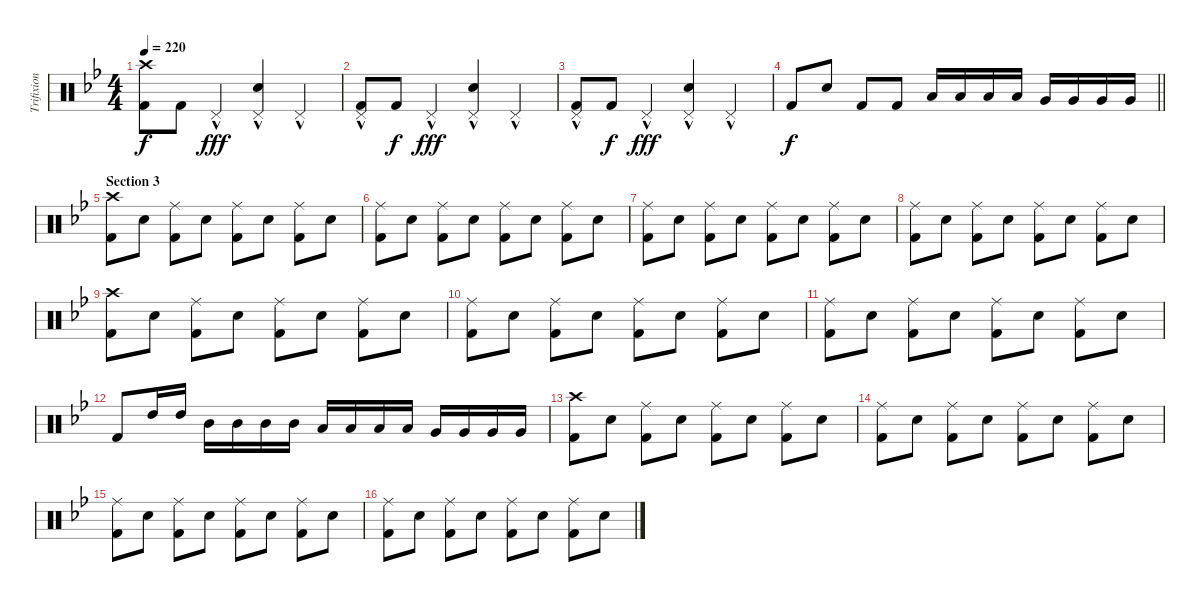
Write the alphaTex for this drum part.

\track ("Trifixion" "Trifixion") {instrument percussion}
\staff {score}
\articulation defaults
\ts (4 4)
\tempo 220
\clef neutral
\ks gminor
("Crash high (hit)" "Kick (hit) 2").8{dy f} "Kick (hit) 2".8 "Pedal Hi-Hat (hit)"{hac}.4{dy fff} ("Pedal Hi-Hat (hit)"{hac} "Electric Snare (hit)").4 "Pedal Hi-Hat (hit)"{hac}.4 |
("Pedal Hi-Hat (hit)"{hac} "Kick (hit) 2").8 "Kick (hit) 2".8{dy f} "Pedal Hi-Hat (hit)"{hac}.4{dy fff} ("Pedal Hi-Hat (hit)"{hac} "Electric Snare (hit)").4 "Pedal Hi-Hat (hit)"{hac}.4 |
("Pedal Hi-Hat (hit)"{hac} "Kick (hit) 2").8 "Kick (hit) 2".8{dy f} "Pedal Hi-Hat (hit)"{hac}.4{dy fff} ("Pedal Hi-Hat (hit)"{hac} "Electric Snare (hit)").4 "Pedal Hi-Hat (hit)"{hac}.4 |
\barLineRight lightlight "Kick (hit) 2".8{dy f} "Electric Snare (hit)".8 "Kick (hit) 2".8 "Kick (hit) 2".8 "Low Tom (hit)".16 "Low Tom (hit)".16 "Low Tom (hit)".16 "Low Tom (hit)".16 "Very Low Tom (hit)".16 "Very Low Tom (hit)".16 "Very Low Tom (hit)".16 "Very Low Tom (hit)".16
|
\section ("" "Section 3")
("Crash high (hit)" "Kick (hit) 2").8 "Electric Snare (hit)".8 ("Ride (middle)" "Kick (hit) 2").8 "Electric Snare (hit)".8 ("Ride (middle)" "Kick (hit) 2").8 "Electric Snare (hit)".8 ("Ride (middle)" "Kick (hit) 2").8 "Electric Snare (hit)".8 |
("Ride (middle)" "Kick (hit) 2").8 "Electric Snare (hit)".8 ("Ride (middle)" "Kick (hit) 2").8 "Electric Snare (hit)".8 ("Ride (middle)" "Kick (hit) 2").8 "Electric Snare (hit)".8 ("Ride (middle)" "Kick (hit) 2").8 "Electric Snare (hit)".8 |
("Ride (middle)" "Kick (hit) 2").8 "Electric Snare (hit)".8 ("Ride (middle)" "Kick (hit) 2").8 "Electric Snare (hit)".8 ("Ride (middle)" "Kick (hit) 2").8 "Electric Snare (hit)".8 ("Ride (middle)" "Kick (hit) 2").8 "Electric Snare (hit)".8 |
("Ride (middle)" "Kick (hit) 2").8 "Electric Snare (hit)".8 ("Ride (middle)" "Kick (hit) 2").8 "Electric Snare (hit)".8 ("Ride (middle)" "Kick (hit) 2").8 "Electric Snare (hit)".8 ("Ride (middle)" "Kick (hit) 2").8 "Electric Snare (hit)".8 |
("Crash high (hit)" "Kick (hit) 2").8 "Electric Snare (hit)".8 ("Ride (middle)" "Kick (hit) 2").8 "Electric Snare (hit)".8 ("Ride (middle)" "Kick (hit) 2").8 "Electric Snare (hit)".8 ("Ride (middle)" "Kick (hit) 2").8 "Electric Snare (hit)".8 |
("Ride (middle)" "Kick (hit) 2").8 "Electric Snare (hit)".8 ("Ride (middle)" "Kick (hit) 2").8 "Electric Snare (hit)".8 ("Ride (middle)" "Kick (hit) 2").8 "Electric Snare (hit)".8 ("Ride (middle)" "Kick (hit) 2").8 "Electric Snare (hit)".8 |
("Ride (middle)" "Kick (hit) 2").8 "Electric Snare (hit)".8 ("Ride (middle)" "Kick (hit) 2").8 "Electric Snare (hit)".8 ("Ride (middle)" "Kick (hit) 2").8 "Electric Snare (hit)".8 ("Ride (middle)" "Kick (hit) 2").8 "Electric Snare (hit)".8 |
"Kick (hit) 2".8 "High Tom (hit)".16 "High Tom (hit)".16 "Mid Tom (hit)".16 "Mid Tom (hit)".16 "Mid Tom (hit)".16 "Mid Tom (hit)".16 "Low Tom (hit)".16 "Low Tom (hit)".16 "Low Tom (hit)".16 "Low Tom (hit)".16 "Very Low Tom (hit)".16 "Very Low Tom (hit)".16 "Very Low Tom (hit)".16 "Very Low Tom (hit)".16 |
("Crash high (hit)" "Kick (hit) 2").8 "Electric Snare (hit)".8 ("Ride (middle)" "Kick (hit) 2").8 "Electric Snare (hit)".8 ("Ride (middle)" "Kick (hit) 2").8 "Electric Snare (hit)".8 ("Ride (middle)" "Kick (hit) 2").8 "Electric Snare (hit)".8 |
("Ride (middle)" "Kick (hit) 2").8 "Electric Snare (hit)".8 ("Ride (middle)" "Kick (hit) 2").8 "Electric Snare (hit)".8 ("Ride (middle)" "Kick (hit) 2").8 "Electric Snare (hit)".8 ("Ride (middle)" "Kick (hit) 2").8 "Electric Snare (hit)".8 |
("Ride (middle)" "Kick (hit) 2").8 "Electric Snare (hit)".8 ("Ride (middle)" "Kick (hit) 2").8 "Electric Snare (hit)".8 ("Ride (middle)" "Kick (hit) 2").8 "Electric Snare (hit)".8 ("Ride (middle)" "Kick (hit) 2").8 "Electric Snare (hit)".8 |
("Ride (middle)" "Kick (hit) 2").8 "Electric Snare (hit)".8 ("Ride (middle)" "Kick (hit) 2").8 "Electric Snare (hit)".8 ("Ride (middle)" "Kick (hit) 2").8 "Electric Snare (hit)".8 ("Ride (middle)" "Kick (hit) 2").8 "Electric Snare (hit)".8
